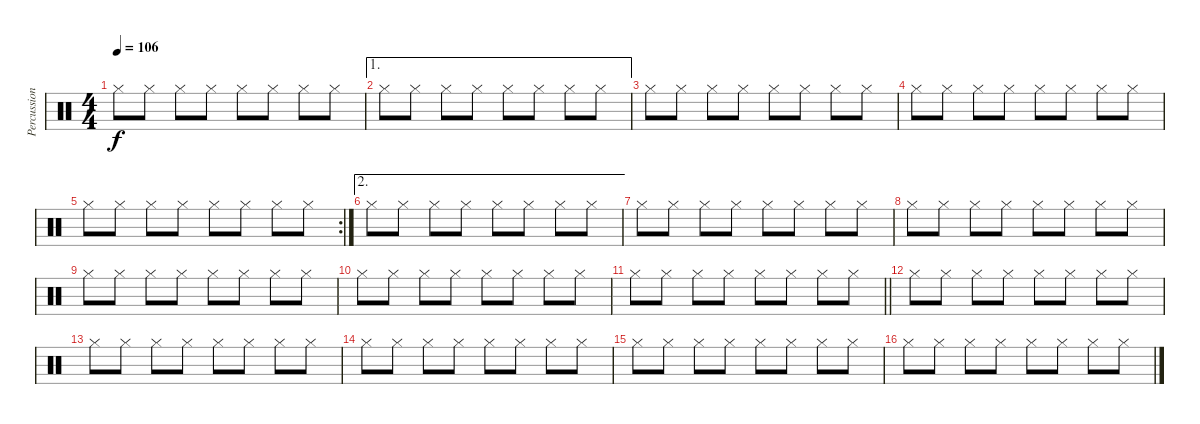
\track ("Percussions" "Percussion") {instrument percussion}
\staff {score}
\articulation defaults
\ts (4 4)
\tempo 106
\clef neutral
\ks c "Hi-Hat (closed)".8{dy f} "Hi-Hat (closed)".8 "Hi-Hat (closed)".8 "Hi-Hat (closed)".8 "Hi-Hat (closed)".8 "Hi-Hat (closed)".8 "Hi-Hat (closed)".8 "Hi-Hat (closed)".8
|
\ae 1 "Hi-Hat (closed)".8 "Hi-Hat (closed)".8 "Hi-Hat (closed)".8 "Hi-Hat (closed)".8 "Hi-Hat (closed)".8 "Hi-Hat (closed)".8 "Hi-Hat (closed)".8 "Hi-Hat (closed)".8
|
"Hi-Hat (closed)".8 "Hi-Hat (closed)".8 "Hi-Hat (closed)".8 "Hi-Hat (closed)".8 "Hi-Hat (closed)".8 "Hi-Hat (closed)".8 "Hi-Hat (closed)".8 "Hi-Hat (closed)".8 |
"Hi-Hat (closed)".8 "Hi-Hat (closed)".8 "Hi-Hat (closed)".8 "Hi-Hat (closed)".8 "Hi-Hat (closed)".8 "Hi-Hat (closed)".8 "Hi-Hat (closed)".8 "Hi-Hat (closed)".8 |
\rc 2 "Hi-Hat (closed)".8 "Hi-Hat (closed)".8 "Hi-Hat (closed)".8 "Hi-Hat (closed)".8 "Hi-Hat (closed)".8 "Hi-Hat (closed)".8 "Hi-Hat (closed)".8 "Hi-Hat (closed)".8
|
\ae 2 "Hi-Hat (closed)".8 "Hi-Hat (closed)".8 "Hi-Hat (closed)".8 "Hi-Hat (closed)".8 "Hi-Hat (closed)".8 "Hi-Hat (closed)".8 "Hi-Hat (closed)".8 "Hi-Hat (closed)".8
|
"Hi-Hat (closed)".8 "Hi-Hat (closed)".8 "Hi-Hat (closed)".8 "Hi-Hat (closed)".8 "Hi-Hat (closed)".8 "Hi-Hat (closed)".8 "Hi-Hat (closed)".8 "Hi-Hat (closed)".8 |
"Hi-Hat (closed)".8 "Hi-Hat (closed)".8 "Hi-Hat (closed)".8 "Hi-Hat (closed)".8 "Hi-Hat (closed)".8 "Hi-Hat (closed)".8 "Hi-Hat (closed)".8 "Hi-Hat (closed)".8 |
"Hi-Hat (closed)".8 "Hi-Hat (closed)".8 "Hi-Hat (closed)".8 "Hi-Hat (closed)".8 "Hi-Hat (closed)".8 "Hi-Hat (closed)".8 "Hi-Hat (closed)".8 "Hi-Hat (closed)".8 |
"Hi-Hat (closed)".8 "Hi-Hat (closed)".8 "Hi-Hat (closed)".8 "Hi-Hat (closed)".8 "Hi-Hat (closed)".8 "Hi-Hat (closed)".8 "Hi-Hat (closed)".8 "Hi-Hat (closed)".8 |
\barLineRight lightlight "Hi-Hat (closed)".8 "Hi-Hat (closed)".8 "Hi-Hat (closed)".8 "Hi-Hat (closed)".8 "Hi-Hat (closed)".8 "Hi-Hat (closed)".8 "Hi-Hat (closed)".8 "Hi-Hat (closed)".8
|
"Hi-Hat (closed)".8 "Hi-Hat (closed)".8 "Hi-Hat (closed)".8 "Hi-Hat (closed)".8 "Hi-Hat (closed)".8 "Hi-Hat (closed)".8 "Hi-Hat (closed)".8 "Hi-Hat (closed)".8 |
"Hi-Hat (closed)".8 "Hi-Hat (closed)".8 "Hi-Hat (closed)".8 "Hi-Hat (closed)".8 "Hi-Hat (closed)".8 "Hi-Hat (closed)".8 "Hi-Hat (closed)".8 "Hi-Hat (closed)".8 |
"Hi-Hat (closed)".8 "Hi-Hat (closed)".8 "Hi-Hat (closed)".8 "Hi-Hat (closed)".8 "Hi-Hat (closed)".8 "Hi-Hat (closed)".8 "Hi-Hat (closed)".8 "Hi-Hat (closed)".8 |
"Hi-Hat (closed)".8 "Hi-Hat (closed)".8 "Hi-Hat (closed)".8 "Hi-Hat (closed)".8 "Hi-Hat (closed)".8 "Hi-Hat (closed)".8 "Hi-Hat (closed)".8 "Hi-Hat (closed)".8 |
"Hi-Hat (closed)".8 "Hi-Hat (closed)".8 "Hi-Hat (closed)".8 "Hi-Hat (closed)".8 "Hi-Hat (closed)".8 "Hi-Hat (closed)".8 "Hi-Hat (closed)".8 "Hi-Hat (closed)".8
